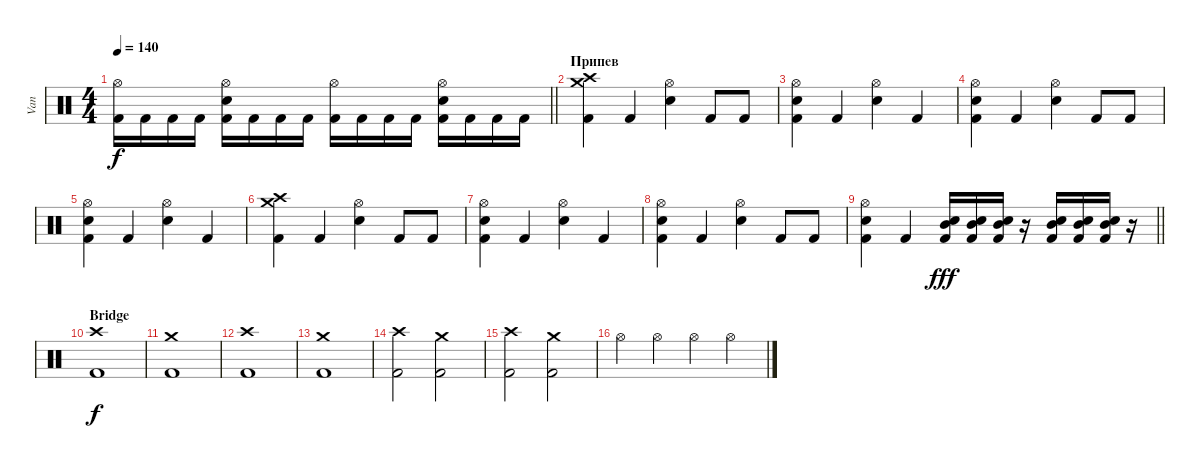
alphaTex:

\track ("Van" "Van") {instrument percussion}
\staff {score}
\articulation defaults
\ts (4 4)
\tempo 140
\clef neutral
\barLineRight lightlight
\ks c
("Hi-Hat (open)" "Kick (hit) 2").16{dy f} "Kick (hit) 2".16 "Kick (hit) 2".16 "Kick (hit) 2".16 ("Hi-Hat (open)" "Electric Snare (hit)" "Kick (hit) 2").16 "Kick (hit) 2".16 "Kick (hit) 2".16 "Kick (hit) 2".16 ("Hi-Hat (open)" "Kick (hit) 2").16 "Kick (hit) 2".16 "Kick (hit) 2".16 "Kick (hit) 2".16 ("Hi-Hat (open)" "Electric Snare (hit)" "Kick (hit) 2").16 "Kick (hit) 2".16 "Kick (hit) 2".16 "Kick (hit) 2".16 |
\section ("" "Припев")
("Crash medium (hit)" "Crash high (hit)" "Kick (hit) 2").4 "Kick (hit) 2".4 ("Hi-Hat (open)" "Electric Snare (hit)").4 "Kick (hit) 2".8 "Kick (hit) 2".8 |
("Hi-Hat (open)" "Electric Snare (hit)" "Kick (hit) 2").4 "Kick (hit) 2".4 ("Hi-Hat (open)" "Electric Snare (hit)").4 "Kick (hit) 2".4 |
("Hi-Hat (open)" "Electric Snare (hit)" "Kick (hit) 2").4 "Kick (hit) 2".4 ("Hi-Hat (open)" "Electric Snare (hit)").4 "Kick (hit) 2".8 "Kick (hit) 2".8 |
("Hi-Hat (open)" "Electric Snare (hit)" "Kick (hit) 2").4 "Kick (hit) 2".4 ("Hi-Hat (open)" "Electric Snare (hit)").4 "Kick (hit) 2".4 |
("Crash medium (hit)" "Crash high (hit)" "Kick (hit) 2").4 "Kick (hit) 2".4 ("Hi-Hat (open)" "Electric Snare (hit)").4 "Kick (hit) 2".8 "Kick (hit) 2".8 |
("Hi-Hat (open)" "Electric Snare (hit)" "Kick (hit) 2").4 "Kick (hit) 2".4 ("Hi-Hat (open)" "Electric Snare (hit)").4 "Kick (hit) 2".4 |
("Hi-Hat (open)" "Electric Snare (hit)" "Kick (hit) 2").4 "Kick (hit) 2".4 ("Hi-Hat (open)" "Electric Snare (hit)").4 "Kick (hit) 2".8 "Kick (hit) 2".8 |
\barLineRight lightlight
("Hi-Hat (open)" "Electric Snare (hit)" "Kick (hit) 2").4 "Kick (hit) 2".4 ("Mid Tom (hit)" "Electric Snare (hit)" "Kick (hit) 2").16{dy fff} ("Mid Tom (hit)" "Electric Snare (hit)" "Kick (hit) 2").16 ("Mid Tom (hit)" "Electric Snare (hit)" "Kick (hit) 2").16 r.16 ("Mid Tom (hit)" "Electric Snare (hit)" "Kick (hit) 2").16 ("Mid Tom (hit)" "Electric Snare (hit)" "Kick (hit) 2").16 ("Mid Tom (hit)" "Electric Snare (hit)" "Kick (hit) 2").16 r.16 |
\section ("" "Bridge")
("Crash high (hit)" "Kick (hit) 2").1{dy f} |
("Crash medium (hit)" "Kick (hit) 2").1 |
("Crash high (hit)" "Kick (hit) 2").1 |
("Crash medium (hit)" "Kick (hit) 2").1 |
("Crash high (hit)" "Kick (hit) 2").2 ("Crash medium (hit)" "Kick (hit) 2").2 |
("Crash high (hit)" "Kick (hit) 2").2 ("Crash medium (hit)" "Kick (hit) 2").2 |
"Hi-Hat (open)".4 "Hi-Hat (open)".4 "Hi-Hat (open)".4 "Hi-Hat (open)".4
